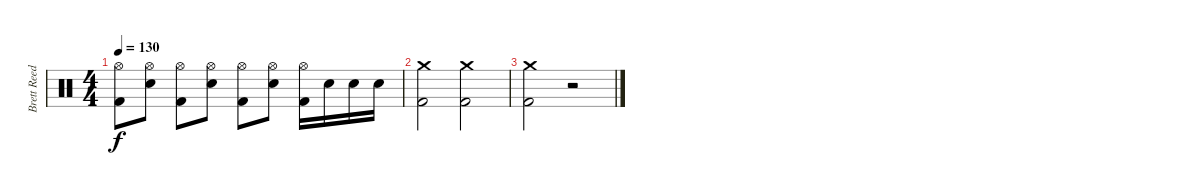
\track ("Brett Reed" "Brett Reed") {instrument percussion}
\staff {score}
\articulation defaults
\ts (4 4)
\tempo 130
\clef neutral
\ks c
("Hi-Hat (open)" "Kick (hit) 2").8{dy f} ("Hi-Hat (open)" "Snare (hit) 2").8 ("Hi-Hat (open)" "Kick (hit) 2").8 ("Hi-Hat (open)" "Snare (hit) 2").8 ("Hi-Hat (open)" "Kick (hit) 2").8 ("Hi-Hat (open)" "Snare (hit) 2").8 ("Hi-Hat (open)" "Kick (hit) 2").16 "Snare (hit) 2".16 "Snare (hit) 2".16 "Snare (hit) 2".16 |
("Crash medium (hit)" "Kick (hit) 2").2 ("Crash medium (hit)" "Kick (hit) 2").2 |
("Crash medium (hit)" "Kick (hit) 2").2 r.2
